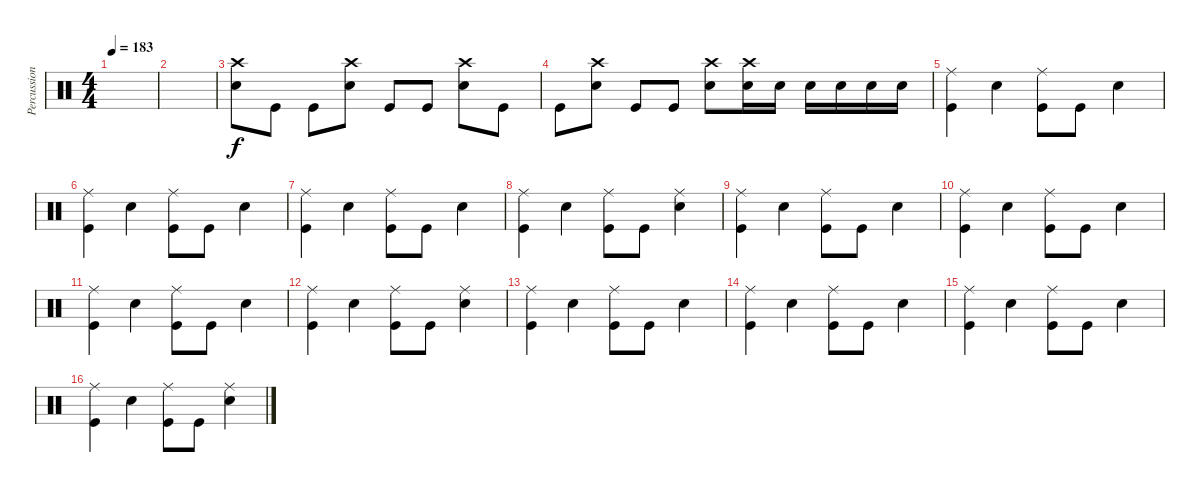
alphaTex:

\track ("Percussion" "Percussion") {instrument percussion}
\staff {score}
\articulation defaults
\ts (4 4)
\tempo 183
\clef neutral
\ks c
|
|
("Crash high (hit)" "Electric Snare (hit)").8 "Kick (hit)".8 "Kick (hit)".8 ("Crash high (hit)" "Electric Snare (hit)").8 "Kick (hit)".8 "Kick (hit)".8 ("Crash high (hit)" "Electric Snare (hit)").8 "Kick (hit)".8 |
"Kick (hit)".8 ("Crash high (hit)" "Electric Snare (hit)").8 "Kick (hit)".8 "Kick (hit)".8 ("Crash high (hit)" "Electric Snare (hit)").8 ("Crash high (hit)" "Electric Snare (hit)").16 "Electric Snare (hit)".16 "Electric Snare (hit)".16 "Electric Snare (hit)".16 "Electric Snare (hit)".16 "Electric Snare (hit)".16 |
("Ride (middle)" "Kick (hit)").4 "Electric Snare (hit)".4 ("Ride (middle)" "Kick (hit)").8 "Kick (hit)".8 "Electric Snare (hit)".4 |
("Ride (middle)" "Kick (hit)").4 "Electric Snare (hit)".4 ("Ride (middle)" "Kick (hit)").8 "Kick (hit)".8 "Electric Snare (hit)".4 |
("Ride (middle)" "Kick (hit)").4 "Electric Snare (hit)".4 ("Ride (middle)" "Kick (hit)").8 "Kick (hit)".8 "Electric Snare (hit)".4 |
("Ride (middle)" "Kick (hit)").4 "Electric Snare (hit)".4 ("Ride (middle)" "Kick (hit)").8 "Kick (hit)".8 ("Ride (middle)" "Electric Snare (hit)").4 |
("Ride (middle)" "Kick (hit)").4 "Electric Snare (hit)".4 ("Ride (middle)" "Kick (hit)").8 "Kick (hit)".8 "Electric Snare (hit)".4 |
("Ride (middle)" "Kick (hit)").4 "Electric Snare (hit)".4 ("Ride (middle)" "Kick (hit)").8 "Kick (hit)".8 "Electric Snare (hit)".4 |
("Ride (middle)" "Kick (hit)").4 "Electric Snare (hit)".4 ("Ride (middle)" "Kick (hit)").8 "Kick (hit)".8 "Electric Snare (hit)".4 |
("Ride (middle)" "Kick (hit)").4 "Electric Snare (hit)".4 ("Ride (middle)" "Kick (hit)").8 "Kick (hit)".8 ("Ride (middle)" "Electric Snare (hit)").4 |
("Ride (middle)" "Kick (hit)").4 "Electric Snare (hit)".4 ("Ride (middle)" "Kick (hit)").8 "Kick (hit)".8 "Electric Snare (hit)".4 |
("Ride (middle)" "Kick (hit)").4 "Electric Snare (hit)".4 ("Ride (middle)" "Kick (hit)").8 "Kick (hit)".8 "Electric Snare (hit)".4 |
("Ride (middle)" "Kick (hit)").4 "Electric Snare (hit)".4 ("Ride (middle)" "Kick (hit)").8 "Kick (hit)".8 "Electric Snare (hit)".4 |
("Ride (middle)" "Kick (hit)").4 "Electric Snare (hit)".4 ("Ride (middle)" "Kick (hit)").8 "Kick (hit)".8 ("Ride (middle)" "Electric Snare (hit)").4
